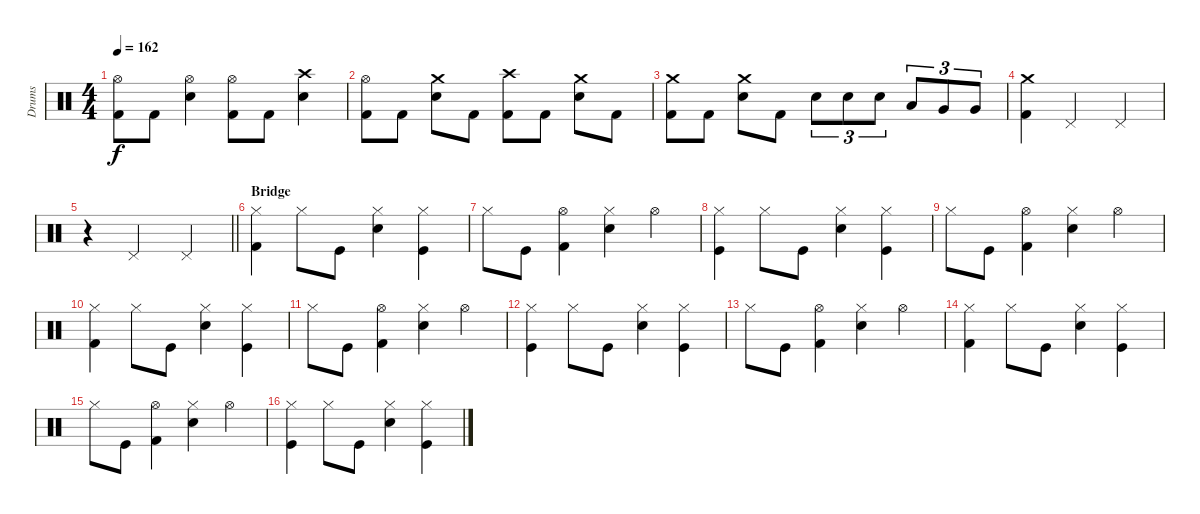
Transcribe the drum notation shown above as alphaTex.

\track ("Drums" "Drums") {instrument percussion}
\staff {score}
\articulation defaults
\ts (4 4)
\tempo 162
\clef neutral
\ks c
("Hi-Hat (open)" "Kick (hit) 2").8{dy f} "Kick (hit) 2".8 ("Hi-Hat (open)" "Electric Snare (hit)").4 ("Hi-Hat (open)" "Kick (hit) 2").8 "Kick (hit) 2".8 ("Crash high (hit)" "Electric Snare (hit)").4 |
("Hi-Hat (open)" "Kick (hit) 2").8 "Kick (hit) 2".8 ("Crash medium (hit)" "Electric Snare (hit)").8 "Kick (hit) 2".8 ("Crash high (hit)" "Kick (hit) 2").8 "Kick (hit) 2".8 ("Crash medium (hit)" "Electric Snare (hit)").8 "Kick (hit) 2".8 |
("Crash medium (hit)" "Kick (hit) 2").8 "Kick (hit) 2".8 ("Crash medium (hit)" "Electric Snare (hit)").8 "Kick (hit) 2".8 "Electric Snare (hit)".8{tu (3 2)} "Electric Snare (hit)".8{tu (3 2)} "Electric Snare (hit)".8{tu (3 2)} "Low Tom (hit)".8{tu (3 2)} "Very Low Tom (hit)".8{tu (3 2)} "Very Low Tom (hit)".8{tu (3 2)} |
("Crash medium (hit)" "Kick (hit) 2").4 "Pedal Hi-Hat (hit)".2 "Pedal Hi-Hat (hit)".4 |
\barLineRight lightlight
r.4 "Pedal Hi-Hat (hit)".2 "Pedal Hi-Hat (hit)".4 |
\section ("" "Bridge")
("Hi-Hat (closed)" "Kick (hit) 2").4{volume 9 balance 10} "Hi-Hat (closed)".8 "Kick (hit)".8 ("Hi-Hat (closed)" "Electric Snare (hit)").4 ("Hi-Hat (closed)" "Kick (hit)").4 |
"Hi-Hat (closed)".8 "Kick (hit)".8 ("Hi-Hat (open)" "Kick (hit) 2").4 ("Hi-Hat (closed)" "Electric Snare (hit)").4 "Hi-Hat (open)".4 |
("Hi-Hat (closed)" "Kick (hit)").4 "Hi-Hat (closed)".8 "Kick (hit)".8 ("Hi-Hat (closed)" "Electric Snare (hit)").4 ("Hi-Hat (closed)" "Kick (hit)").4 |
"Hi-Hat (closed)".8 "Kick (hit)".8 ("Hi-Hat (open)" "Kick (hit) 2").4 ("Hi-Hat (closed)" "Electric Snare (hit)").4 "Hi-Hat (open)".4 |
("Hi-Hat (closed)" "Kick (hit) 2").4 "Hi-Hat (closed)".8 "Kick (hit)".8 ("Hi-Hat (closed)" "Electric Snare (hit)").4 ("Hi-Hat (closed)" "Kick (hit)").4 |
"Hi-Hat (closed)".8 "Kick (hit)".8 ("Hi-Hat (open)" "Kick (hit) 2").4 ("Hi-Hat (closed)" "Electric Snare (hit)").4 "Hi-Hat (open)".4 |
("Hi-Hat (closed)" "Kick (hit)").4 "Hi-Hat (closed)".8 "Kick (hit)".8 ("Hi-Hat (closed)" "Electric Snare (hit)").4 ("Hi-Hat (closed)" "Kick (hit)").4 |
"Hi-Hat (closed)".8 "Kick (hit)".8 ("Hi-Hat (open)" "Kick (hit) 2").4 ("Hi-Hat (closed)" "Electric Snare (hit)").4 "Hi-Hat (open)".4 |
("Hi-Hat (closed)" "Kick (hit) 2").4 "Hi-Hat (closed)".8 "Kick (hit)".8 ("Hi-Hat (closed)" "Electric Snare (hit)").4 ("Hi-Hat (closed)" "Kick (hit)").4 |
"Hi-Hat (closed)".8 "Kick (hit)".8 ("Hi-Hat (open)" "Kick (hit) 2").4 ("Hi-Hat (closed)" "Electric Snare (hit)").4 "Hi-Hat (open)".4 |
("Hi-Hat (closed)" "Kick (hit)").4 "Hi-Hat (closed)".8 "Kick (hit)".8 ("Hi-Hat (closed)" "Electric Snare (hit)").4 ("Hi-Hat (closed)" "Kick (hit)").4
